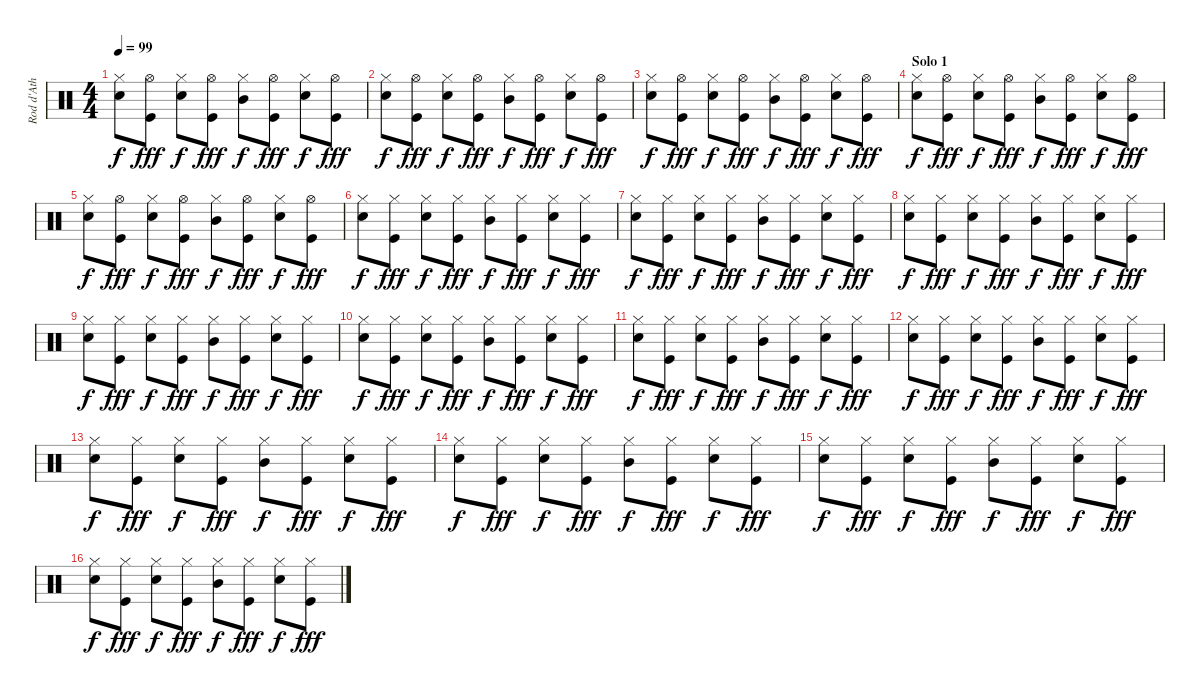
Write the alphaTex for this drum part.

\track ("Rod d'Ath" "Rod d'Ath") {instrument percussion}
\staff {score}
\articulation defaults
\ts (4 4)
\tempo 99
\clef neutral
\ks c
("Hi-Hat (closed)" "Snare (hit) 2").8{dy f} ("Hi-Hat (open)" "Kick (hit)").8{dy fff} ("Hi-Hat (closed)" "Snare (hit) 2").8{dy f} ("Hi-Hat (open)" "Kick (hit)").8{dy fff} ("Hi-Hat (closed)" "Mid Tom (hit)").8{dy f} ("Hi-Hat (open)" "Kick (hit)").8{dy fff} ("Hi-Hat (closed)" "Snare (hit) 2").8{dy f} ("Hi-Hat (open)" "Kick (hit)").8{dy fff} |
("Hi-Hat (closed)" "Snare (hit) 2").8{dy f} ("Hi-Hat (open)" "Kick (hit)").8{dy fff} ("Hi-Hat (closed)" "Snare (hit) 2").8{dy f} ("Hi-Hat (open)" "Kick (hit)").8{dy fff} ("Hi-Hat (closed)" "Mid Tom (hit)").8{dy f} ("Hi-Hat (open)" "Kick (hit)").8{dy fff} ("Hi-Hat (closed)" "Snare (hit) 2").8{dy f} ("Hi-Hat (open)" "Kick (hit)").8{dy fff} |
("Hi-Hat (closed)" "Snare (hit) 2").8{dy f} ("Hi-Hat (open)" "Kick (hit)").8{dy fff} ("Hi-Hat (closed)" "Snare (hit) 2").8{dy f} ("Hi-Hat (open)" "Kick (hit)").8{dy fff} ("Hi-Hat (closed)" "Mid Tom (hit)").8{dy f} ("Hi-Hat (open)" "Kick (hit)").8{dy fff} ("Hi-Hat (closed)" "Snare (hit) 2").8{dy f} ("Hi-Hat (open)" "Kick (hit)").8{dy fff} |
\section ("" "Solo 1")
("Hi-Hat (closed)" "Snare (hit) 2").8{dy f} ("Hi-Hat (open)" "Kick (hit)").8{dy fff} ("Hi-Hat (closed)" "Snare (hit) 2").8{dy f} ("Hi-Hat (open)" "Kick (hit)").8{dy fff} ("Hi-Hat (closed)" "Mid Tom (hit)").8{dy f} ("Hi-Hat (open)" "Kick (hit)").8{dy fff} ("Hi-Hat (closed)" "Snare (hit) 2").8{dy f} ("Hi-Hat (open)" "Kick (hit)").8{dy fff} |
("Hi-Hat (closed)" "Snare (hit) 2").8{dy f} ("Hi-Hat (open)" "Kick (hit)").8{dy fff} ("Hi-Hat (closed)" "Snare (hit) 2").8{dy f} ("Hi-Hat (open)" "Kick (hit)").8{dy fff} ("Hi-Hat (closed)" "Mid Tom (hit)").8{dy f} ("Hi-Hat (open)" "Kick (hit)").8{dy fff} ("Hi-Hat (closed)" "Snare (hit) 2").8{dy f} ("Hi-Hat (open)" "Kick (hit)").8{dy fff} |
("Hi-Hat (closed)" "Snare (hit) 2").8{dy f} ("Hi-Hat (closed)" "Kick (hit)").8{dy fff} ("Hi-Hat (closed)" "Snare (hit) 2").8{dy f} ("Hi-Hat (closed)" "Kick (hit)").8{dy fff} ("Hi-Hat (closed)" "Mid Tom (hit)").8{dy f} ("Hi-Hat (closed)" "Kick (hit)").8{dy fff} ("Hi-Hat (closed)" "Snare (hit) 2").8{dy f} ("Hi-Hat (closed)" "Kick (hit)").8{dy fff} |
("Hi-Hat (closed)" "Snare (hit) 2").8{dy f} ("Hi-Hat (closed)" "Kick (hit)").8{dy fff} ("Hi-Hat (closed)" "Snare (hit) 2").8{dy f} ("Hi-Hat (closed)" "Kick (hit)").8{dy fff} ("Hi-Hat (closed)" "Mid Tom (hit)").8{dy f} ("Hi-Hat (closed)" "Kick (hit)").8{dy fff} ("Hi-Hat (closed)" "Snare (hit) 2").8{dy f} ("Hi-Hat (closed)" "Kick (hit)").8{dy fff} |
("Hi-Hat (closed)" "Snare (hit) 2").8{dy f} ("Hi-Hat (closed)" "Kick (hit)").8{dy fff} ("Hi-Hat (closed)" "Snare (hit) 2").8{dy f} ("Hi-Hat (closed)" "Kick (hit)").8{dy fff} ("Hi-Hat (closed)" "Mid Tom (hit)").8{dy f} ("Hi-Hat (closed)" "Kick (hit)").8{dy fff} ("Hi-Hat (closed)" "Snare (hit) 2").8{dy f} ("Hi-Hat (closed)" "Kick (hit)").8{dy fff} |
("Hi-Hat (closed)" "Snare (hit) 2").8{dy f} ("Hi-Hat (closed)" "Kick (hit)").8{dy fff} ("Hi-Hat (closed)" "Snare (hit) 2").8{dy f} ("Hi-Hat (closed)" "Kick (hit)").8{dy fff} ("Hi-Hat (closed)" "Mid Tom (hit)").8{dy f} ("Hi-Hat (closed)" "Kick (hit)").8{dy fff} ("Hi-Hat (closed)" "Snare (hit) 2").8{dy f} ("Hi-Hat (closed)" "Kick (hit)").8{dy fff} |
("Hi-Hat (closed)" "Snare (hit) 2").8{dy f} ("Hi-Hat (closed)" "Kick (hit)").8{dy fff} ("Hi-Hat (closed)" "Snare (hit) 2").8{dy f} ("Hi-Hat (closed)" "Kick (hit)").8{dy fff} ("Hi-Hat (closed)" "Mid Tom (hit)").8{dy f} ("Hi-Hat (closed)" "Kick (hit)").8{dy fff} ("Hi-Hat (closed)" "Snare (hit) 2").8{dy f} ("Hi-Hat (closed)" "Kick (hit)").8{dy fff} |
("Hi-Hat (closed)" "Snare (hit) 2").8{dy f} ("Hi-Hat (closed)" "Kick (hit)").8{dy fff} ("Hi-Hat (closed)" "Snare (hit) 2").8{dy f} ("Hi-Hat (closed)" "Kick (hit)").8{dy fff} ("Hi-Hat (closed)" "Mid Tom (hit)").8{dy f} ("Hi-Hat (closed)" "Kick (hit)").8{dy fff} ("Hi-Hat (closed)" "Snare (hit) 2").8{dy f} ("Hi-Hat (closed)" "Kick (hit)").8{dy fff} |
("Hi-Hat (closed)" "Snare (hit) 2").8{dy f} ("Hi-Hat (closed)" "Kick (hit)").8{dy fff} ("Hi-Hat (closed)" "Snare (hit) 2").8{dy f} ("Hi-Hat (closed)" "Kick (hit)").8{dy fff} ("Hi-Hat (closed)" "Mid Tom (hit)").8{dy f} ("Hi-Hat (closed)" "Kick (hit)").8{dy fff} ("Hi-Hat (closed)" "Snare (hit) 2").8{dy f} ("Hi-Hat (closed)" "Kick (hit)").8{dy fff} |
("Hi-Hat (closed)" "Snare (hit) 2").8{dy f} ("Hi-Hat (closed)" "Kick (hit)").8{dy fff} ("Hi-Hat (closed)" "Snare (hit) 2").8{dy f} ("Hi-Hat (closed)" "Kick (hit)").8{dy fff} ("Hi-Hat (closed)" "Mid Tom (hit)").8{dy f} ("Hi-Hat (closed)" "Kick (hit)").8{dy fff} ("Hi-Hat (closed)" "Snare (hit) 2").8{dy f} ("Hi-Hat (closed)" "Kick (hit)").8{dy fff} |
("Hi-Hat (closed)" "Snare (hit) 2").8{dy f} ("Hi-Hat (closed)" "Kick (hit)").8{dy fff} ("Hi-Hat (closed)" "Snare (hit) 2").8{dy f} ("Hi-Hat (closed)" "Kick (hit)").8{dy fff} ("Hi-Hat (closed)" "Mid Tom (hit)").8{dy f} ("Hi-Hat (closed)" "Kick (hit)").8{dy fff} ("Hi-Hat (closed)" "Snare (hit) 2").8{dy f} ("Hi-Hat (closed)" "Kick (hit)").8{dy fff} |
("Hi-Hat (closed)" "Snare (hit) 2").8{dy f} ("Hi-Hat (closed)" "Kick (hit)").8{dy fff} ("Hi-Hat (closed)" "Snare (hit) 2").8{dy f} ("Hi-Hat (closed)" "Kick (hit)").8{dy fff} ("Hi-Hat (closed)" "Mid Tom (hit)").8{dy f} ("Hi-Hat (closed)" "Kick (hit)").8{dy fff} ("Hi-Hat (closed)" "Snare (hit) 2").8{dy f} ("Hi-Hat (closed)" "Kick (hit)").8{dy fff} |
("Hi-Hat (closed)" "Snare (hit) 2").8{dy f} ("Hi-Hat (closed)" "Kick (hit)").8{dy fff} ("Hi-Hat (closed)" "Snare (hit) 2").8{dy f} ("Hi-Hat (closed)" "Kick (hit)").8{dy fff} ("Hi-Hat (closed)" "Mid Tom (hit)").8{dy f} ("Hi-Hat (closed)" "Kick (hit)").8{dy fff} ("Hi-Hat (closed)" "Snare (hit) 2").8{dy f} ("Hi-Hat (closed)" "Kick (hit)").8{dy fff}
